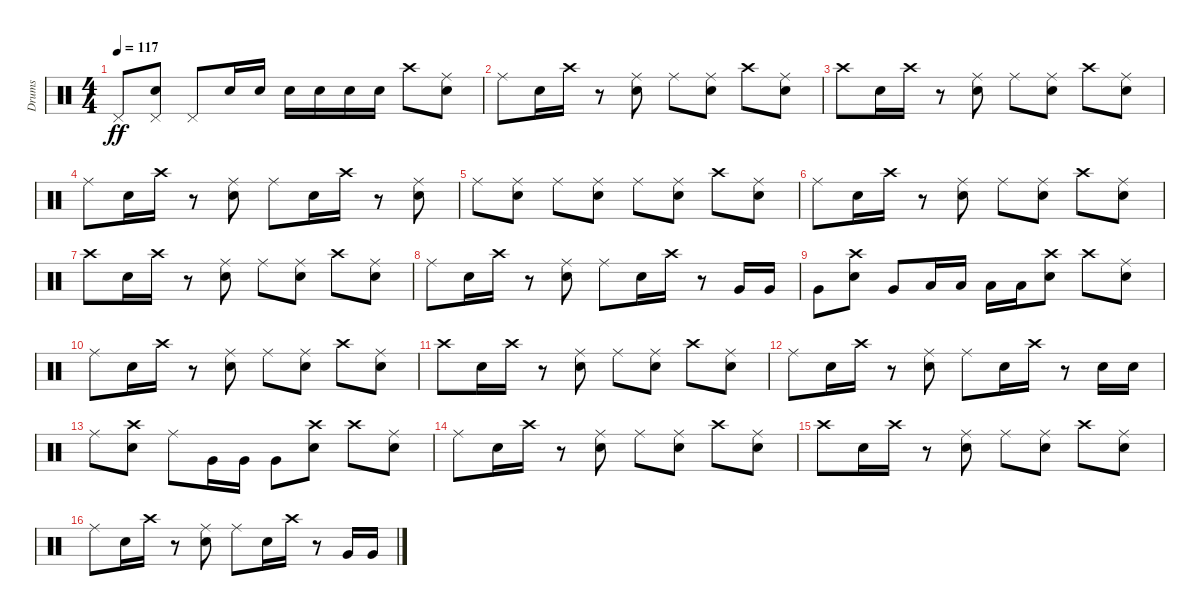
\track ("Drums" "Drums") {instrument percussion}
\staff {score}
\articulation defaults
\ts (4 4)
\tempo 117
\clef neutral
\ks c "Pedal Hi-Hat (hit)".8{dy ff}
("Snare (hit) 2" "Pedal Hi-Hat (hit)").8 "Pedal Hi-Hat (hit)".8 "Snare (hit) 2".16 "Snare (hit) 2".16 "Snare (hit) 2".16 "Snare (hit) 2".16 "Snare (hit) 2".16 "Snare (hit) 2".16 "Crash high (hit)".8 ("Snare (hit) 2" "Ride (middle)").8 |
"Ride (middle)".8 "Snare (hit) 2".16 "Crash high (hit)".16 r.8 ("Snare (hit) 2" "Ride (middle)").8 "Ride (middle)".8 ("Snare (hit) 2" "Ride (middle)").8 "Crash high (hit)".8 ("Snare (hit) 2" "Ride (middle)").8 |
"Crash high (hit)".8 "Snare (hit) 2".16 "Crash high (hit)".16 r.8 ("Snare (hit) 2" "Ride (middle)").8 "Ride (middle)".8 ("Snare (hit) 2" "Ride (middle)").8 "Crash high (hit)".8 ("Snare (hit) 2" "Ride (middle)").8 |
"Ride (middle)".8 "Snare (hit) 2".16 "Crash high (hit)".16 r.8 ("Snare (hit) 2" "Ride (middle)").8 "Ride (middle)".8 "Snare (hit) 2".16 "Crash high (hit)".16 r.8 ("Snare (hit) 2" "Ride (middle)").8 |
"Ride (middle)".8 ("Snare (hit) 2" "Ride (middle)").8 "Ride (middle)".8 ("Snare (hit) 2" "Ride (middle)").8 "Ride (middle)".8 ("Snare (hit) 2" "Ride (middle)").8 "Crash high (hit)".8 ("Snare (hit) 2" "Ride (middle)").8 |
"Ride (middle)".8 "Snare (hit) 2".16 "Crash high (hit)".16 r.8 ("Snare (hit) 2" "Ride (middle)").8 "Ride (middle)".8 ("Snare (hit) 2" "Ride (middle)").8 "Crash high (hit)".8 ("Snare (hit) 2" "Ride (middle)").8 |
"Crash high (hit)".8 "Snare (hit) 2".16 "Crash high (hit)".16 r.8 ("Snare (hit) 2" "Ride (middle)").8 "Ride (middle)".8 ("Snare (hit) 2" "Ride (middle)").8 "Crash high (hit)".8 ("Snare (hit) 2" "Ride (middle)").8 |
"Ride (middle)".8 "Snare (hit) 2".16 "Crash high (hit)".16 r.8 ("Snare (hit) 2" "Ride (middle)").8 "Ride (middle)".8 "Snare (hit) 2".16 "Crash high (hit)".16 r.8 "Very Low Tom (hit)".16 "Very Low Tom (hit)".16 |
"Very Low Tom (hit)".8 ("Snare (hit) 2" "Crash high (hit)").8 "Very Low Tom (hit)".8 "Low Floor Tom (hit)".16 "Low Floor Tom (hit)".16 "Low Floor Tom (hit)".16 "Low Floor Tom (hit)".16 ("Snare (hit) 2" "Crash high (hit)").8 "Crash high (hit)".8 ("Snare (hit) 2" "Ride (middle)").8 |
"Ride (middle)".8 "Snare (hit) 2".16 "Crash high (hit)".16 r.8 ("Snare (hit) 2" "Ride (middle)").8 "Ride (middle)".8 ("Snare (hit) 2" "Ride (middle)").8 "Crash high (hit)".8 ("Snare (hit) 2" "Ride (middle)").8 |
"Crash high (hit)".8 "Snare (hit) 2".16 "Crash high (hit)".16 r.8 ("Snare (hit) 2" "Ride (middle)").8 "Ride (middle)".8 ("Snare (hit) 2" "Ride (middle)").8 "Crash high (hit)".8 ("Snare (hit) 2" "Ride (middle)").8 |
"Ride (middle)".8 "Snare (hit) 2".16 "Crash high (hit)".16 r.8 ("Snare (hit) 2" "Ride (middle)").8 "Ride (middle)".8 "Snare (hit) 2".16 "Crash high (hit)".16 r.8 "Snare (hit) 2".16 "Snare (hit) 2".16 |
"Ride (middle)".8 ("Snare (hit) 2" "Crash high (hit)").8 "Ride (middle)".8 "Very Low Tom (hit)".16 "Very Low Tom (hit)".16 "Very Low Tom (hit)".8 ("Snare (hit) 2" "Crash high (hit)").8 "Crash high (hit)".8 ("Snare (hit) 2" "Ride (middle)").8 |
"Ride (middle)".8 "Snare (hit) 2".16 "Crash high (hit)".16 r.8 ("Snare (hit) 2" "Ride (middle)").8 "Ride (middle)".8 ("Snare (hit) 2" "Ride (middle)").8 "Crash high (hit)".8 ("Snare (hit) 2" "Ride (middle)").8 |
"Crash high (hit)".8 "Snare (hit) 2".16 "Crash high (hit)".16 r.8 ("Snare (hit) 2" "Ride (middle)").8 "Ride (middle)".8 ("Snare (hit) 2" "Ride (middle)").8 "Crash high (hit)".8 ("Snare (hit) 2" "Ride (middle)").8 |
"Ride (middle)".8 "Snare (hit) 2".16 "Crash high (hit)".16 r.8 ("Snare (hit) 2" "Ride (middle)").8 "Ride (middle)".8 "Snare (hit) 2".16 "Crash high (hit)".16 r.8 "Very Low Tom (hit)".16 "Very Low Tom (hit)".16
